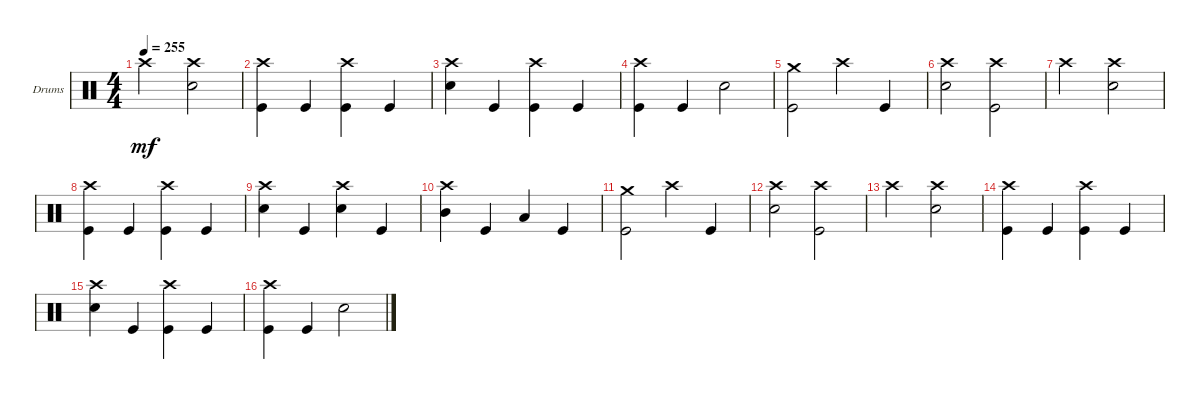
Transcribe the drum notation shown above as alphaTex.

\bracketExtendMode groupsimilarinstruments
\firstSystemTrackNameOrientation horizontal
\otherSystemsTrackNameOrientation horizontal
\track ("Drums" "Drums") {instrument percussion}
\staff {score}
\articulation defaults
\ts (4 4)
\tempo 255
\clef neutral
\ks c "Crash high (hit)".2{dy mf}
("Snare (hit) 2" "Crash high (hit)").2 |
("Kick (hit)" "Crash high (hit)").4 "Kick (hit)".4 ("Kick (hit)" "Crash high (hit)").4 "Kick (hit)".4 |
("Snare (hit) 2" "Crash high (hit)").4 "Kick (hit)".4 ("Kick (hit)" "Crash high (hit)").4 "Kick (hit)".4 |
("Kick (hit)" "Crash high (hit)").4 "Kick (hit)".4 "Snare (hit) 2".2 |
("Kick (hit)" "Crash medium (hit)").2 "Crash high (hit)".4 "Kick (hit)".4 |
("Snare (hit) 2" "Crash high (hit)").2 ("Kick (hit)" "Crash high (hit)").2 |
"Crash high (hit)".2 ("Snare (hit) 2" "Crash high (hit)").2 |
("Kick (hit)" "Crash high (hit)").4 "Kick (hit)".4 ("Kick (hit)" "Crash high (hit)").4 "Kick (hit)".4 |
("Snare (hit) 2" "Crash high (hit)").4 "Kick (hit)".4 ("Snare (hit) 2" "Crash high (hit)").4 "Kick (hit)".4 |
("Mid Tom (hit)" "Crash high (hit)").4 "Kick (hit)".4 "Low Tom (hit)".4 "Kick (hit)".4 |
("Kick (hit)" "Crash medium (hit)").2 "Crash high (hit)".4 "Kick (hit)".4 |
("Snare (hit) 2" "Crash high (hit)").2 ("Kick (hit)" "Crash high (hit)").2 |
"Crash high (hit)".2 ("Snare (hit) 2" "Crash high (hit)").2 |
("Kick (hit)" "Crash high (hit)").4 "Kick (hit)".4 ("Kick (hit)" "Crash high (hit)").4 "Kick (hit)".4 |
("Snare (hit) 2" "Crash high (hit)").4 "Kick (hit)".4 ("Kick (hit)" "Crash high (hit)").4 "Kick (hit)".4 |
("Kick (hit)" "Crash high (hit)").4 "Kick (hit)".4 "Snare (hit) 2".2
